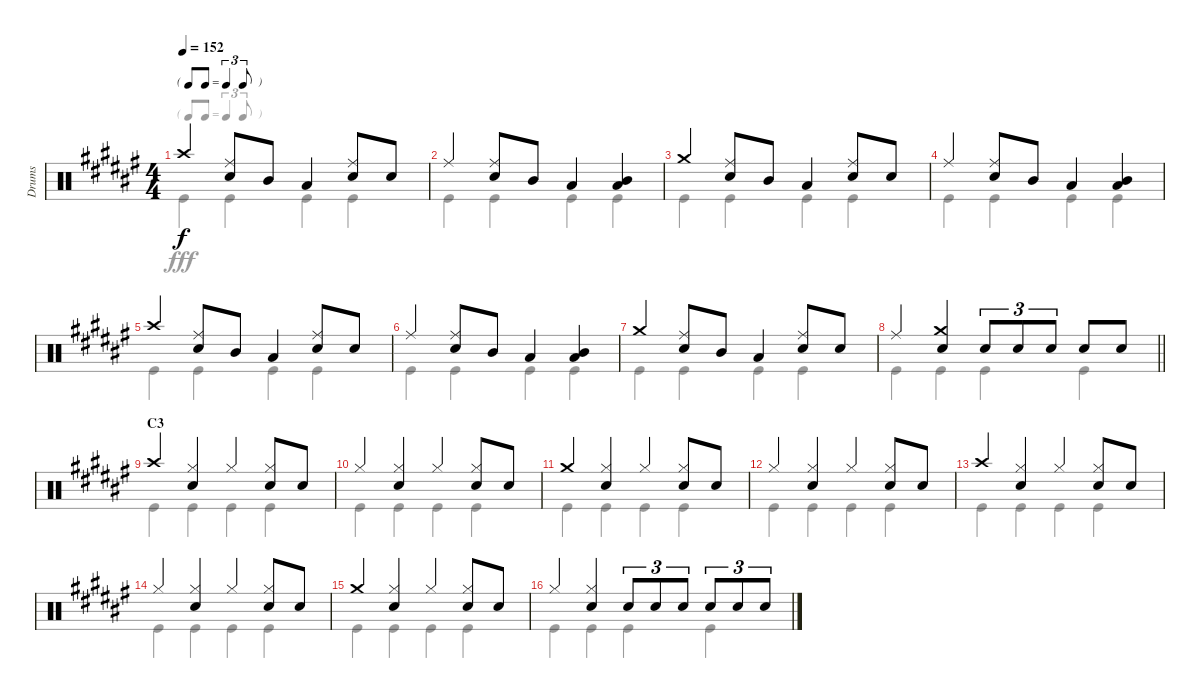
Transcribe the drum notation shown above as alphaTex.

\track ("Drums" "Drums") {instrument percussion}
\staff {score}
\articulation defaults
\voice
\ts (4 4)
\tf triplet8th
\tempo 152
\clef neutral
\ks f# "Crash high (hit)".4{dy f}
("Ride (middle)" "Snare (hit) 2").8 "Mid Tom (hit)".8 "Low Tom (hit)".4 ("Ride (middle)" "Snare (hit) 2").8 "Snare (hit) 2".8 |
"Ride (middle)".4 ("Ride (middle)" "Snare (hit) 2").8 "Mid Tom (hit)".8 "Low Tom (hit)".4 ("Mid Tom (hit)" "Low Tom (hit)").4 |
"Crash medium (hit)".4 ("Ride (middle)" "Snare (hit) 2").8 "Mid Tom (hit)".8 "Low Tom (hit)".4 ("Ride (middle)" "Snare (hit) 2").8 "Snare (hit) 2".8 |
"Ride (middle)".4 ("Ride (middle)" "Snare (hit) 2").8 "Mid Tom (hit)".8 "Low Tom (hit)".4 ("Mid Tom (hit)" "Low Tom (hit)").4 |
"Crash high (hit)".4 ("Ride (middle)" "Snare (hit) 2").8 "Mid Tom (hit)".8 "Low Tom (hit)".4 ("Ride (middle)" "Snare (hit) 2").8 "Snare (hit) 2".8 |
"Ride (middle)".4 ("Ride (middle)" "Snare (hit) 2").8 "Mid Tom (hit)".8 "Low Tom (hit)".4 ("Mid Tom (hit)" "Low Tom (hit)").4 |
"Crash medium (hit)".4 ("Ride (middle)" "Snare (hit) 2").8 "Mid Tom (hit)".8 "Low Tom (hit)".4 ("Ride (middle)" "Snare (hit) 2").8 "Snare (hit) 2".8 |
\barLineRight lightlight "Ride (middle)".4
("Crash medium (hit)" "Snare (hit) 2").4 "Snare (hit) 2".8{tu (3 2)} "Snare (hit) 2".8{tu (3 2)} "Snare (hit) 2".8{tu (3 2)} "Snare (hit) 2".8 "Snare (hit) 2".8 |
\section ("" "C3")
"Crash high (hit)".4 ("Hi-Hat (closed)" "Snare (hit) 2").4 "Hi-Hat (closed)".4 ("Hi-Hat (closed)" "Snare (hit) 2").8 "Snare (hit) 2".8 |
"Hi-Hat (closed)".4 ("Hi-Hat (closed)" "Snare (hit) 2").4 "Hi-Hat (closed)".4 ("Hi-Hat (closed)" "Snare (hit) 2").8 "Snare (hit) 2".8 |
"Crash medium (hit)".4 ("Hi-Hat (closed)" "Snare (hit) 2").4 "Hi-Hat (closed)".4 ("Hi-Hat (closed)" "Snare (hit) 2").8 "Snare (hit) 2".8 |
"Hi-Hat (closed)".4 ("Hi-Hat (closed)" "Snare (hit) 2").4 "Hi-Hat (closed)".4 ("Hi-Hat (closed)" "Snare (hit) 2").8 "Snare (hit) 2".8 |
"Crash high (hit)".4 ("Hi-Hat (closed)" "Snare (hit) 2").4 "Hi-Hat (closed)".4 ("Hi-Hat (closed)" "Snare (hit) 2").8 "Snare (hit) 2".8 |
"Hi-Hat (closed)".4 ("Hi-Hat (closed)" "Snare (hit) 2").4 "Hi-Hat (closed)".4 ("Hi-Hat (closed)" "Snare (hit) 2").8 "Snare (hit) 2".8 |
"Crash medium (hit)".4 ("Hi-Hat (closed)" "Snare (hit) 2").4 "Hi-Hat (closed)".4 ("Hi-Hat (closed)" "Snare (hit) 2").8 "Snare (hit) 2".8 |
"Hi-Hat (closed)".4 ("Hi-Hat (closed)" "Snare (hit) 2").4 "Snare (hit) 2".8{tu (3 2)} "Snare (hit) 2".8{tu (3 2)} "Snare (hit) 2".8{tu (3 2)} "Snare (hit) 2".8{tu (3 2)} "Snare (hit) 2".8{tu (3 2)} "Snare (hit) 2".8{tu (3 2)}
\voice
\clef neutral
\ottava regular
\simile none
\ks f# "Kick (hit)".4{dy fff} "Kick (hit)".4 "Kick (hit)".4 "Kick (hit)".4
|
"Kick (hit)".4 "Kick (hit)".4 "Kick (hit)".4 "Kick (hit)".4 |
"Kick (hit)".4 "Kick (hit)".4 "Kick (hit)".4 "Kick (hit)".4 |
"Kick (hit)".4 "Kick (hit)".4 "Kick (hit)".4 "Kick (hit)".4 |
"Kick (hit)".4 "Kick (hit)".4 "Kick (hit)".4 "Kick (hit)".4 |
"Kick (hit)".4 "Kick (hit)".4 "Kick (hit)".4 "Kick (hit)".4 |
"Kick (hit)".4 "Kick (hit)".4 "Kick (hit)".4 "Kick (hit)".4 |
\barLineRight lightlight "Kick (hit)".4 "Kick (hit)".4 "Kick (hit)".4 "Kick (hit)".4
|
"Kick (hit)".4 "Kick (hit)".4 "Kick (hit)".4 "Kick (hit)".4 |
"Kick (hit)".4 "Kick (hit)".4 "Kick (hit)".4 "Kick (hit)".4 |
"Kick (hit)".4 "Kick (hit)".4 "Kick (hit)".4 "Kick (hit)".4 |
"Kick (hit)".4 "Kick (hit)".4 "Kick (hit)".4 "Kick (hit)".4 |
"Kick (hit)".4 "Kick (hit)".4 "Kick (hit)".4 "Kick (hit)".4 |
"Kick (hit)".4 "Kick (hit)".4 "Kick (hit)".4 "Kick (hit)".4 |
"Kick (hit)".4 "Kick (hit)".4 "Kick (hit)".4 "Kick (hit)".4 |
"Kick (hit)".4 "Kick (hit)".4 "Kick (hit)".4 "Kick (hit)".4
